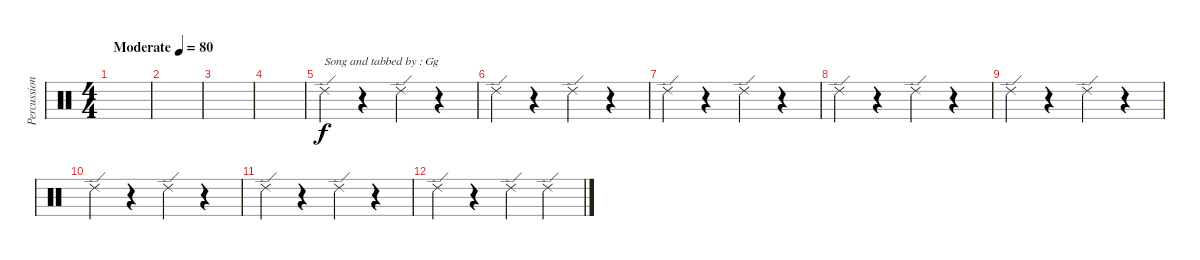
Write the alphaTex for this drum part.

\track ("Percussion" "Percussion") {instrument percussion}
\staff {score}
\articulation defaults
\ts (4 4)
\tempo (80 "Moderate")
\clef neutral
\ks c
|
|
|
|
"Ride (edge) 2".4{txt "Song and tabbed by : Gg"} r.4 "Ride (edge) 2".4 r.4 |
"Ride (edge) 2".4 r.4 "Ride (edge) 2".4 r.4 |
"Ride (edge) 2".4 r.4 "Ride (edge) 2".4 r.4 |
"Ride (edge) 2".4 r.4 "Ride (edge) 2".4 r.4 |
"Ride (edge) 2".4 r.4 "Ride (edge) 2".4 r.4 |
"Ride (edge) 2".4 r.4 "Ride (edge) 2".4 r.4 |
"Ride (edge) 2".4 r.4 "Ride (edge) 2".4 r.4 |
"Ride (edge) 2".4 r.4 "Ride (edge) 2".4 "Ride (edge) 2".4
